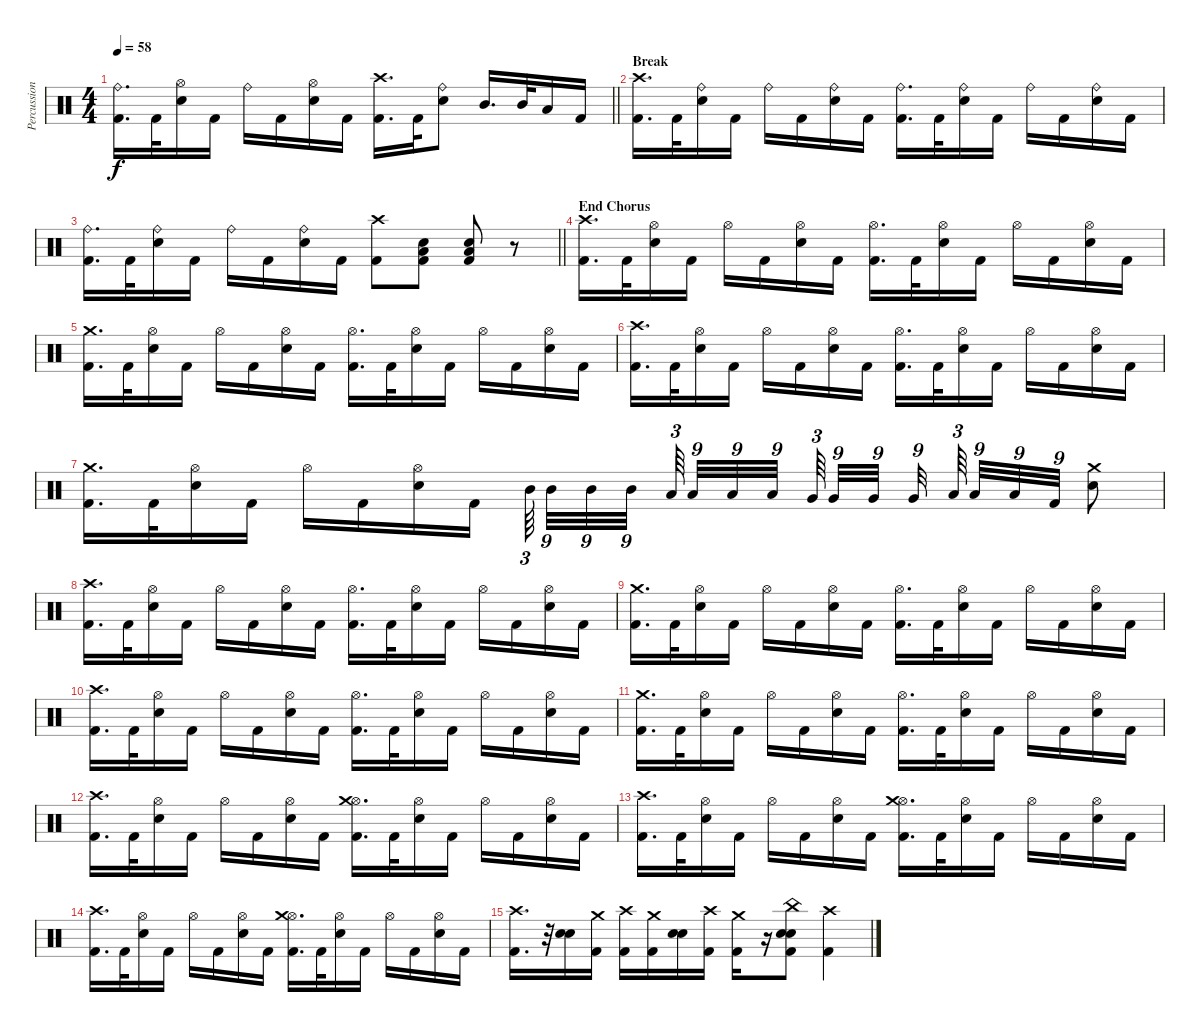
\track ("Percussion 1" "Percussion") {instrument percussion}
\staff {score}
\articulation defaults
\ts (4 4)
\tempo 58
\clef neutral
\barLineRight lightlight
\ks c
("Ride (bell)" "Kick (hit) 2").16{d dy f} "Kick (hit) 2".32 ("Hi-Hat (open)" "Snare (hit) 2").16 "Kick (hit) 2".16 "Ride (bell)".16 "Kick (hit) 2".16 ("Hi-Hat (open)" "Snare (hit) 2").16 "Kick (hit) 2".16 ("Crash high (hit)" "Kick (hit) 2").16{d} "Kick (hit) 2".32 ("Ride (bell)" "Snare (hit) 2").8 "Mid Tom (hit)".16{d} "Mid Tom (hit)".32 "Low Tom (hit)".16 "Kick (hit) 2".16 |
\section ("" "Break")
("Crash high (hit)" "Kick (hit) 2").16{d} "Kick (hit) 2".32 ("Ride (bell)" "Snare (hit) 2").16 "Kick (hit) 2".16 "Ride (bell)".16 "Kick (hit) 2".16 ("Ride (bell)" "Snare (hit) 2").16 "Kick (hit) 2".16 ("Ride (bell)" "Kick (hit) 2").16{d} "Kick (hit) 2".32 ("Ride (bell)" "Snare (hit) 2").16 "Kick (hit) 2".16 "Ride (bell)".16 "Kick (hit) 2".16 ("Ride (bell)" "Snare (hit) 2").16 "Kick (hit) 2".16 |
\barLineRight lightlight
("Ride (bell)" "Kick (hit) 2").16{d} "Kick (hit) 2".32 ("Ride (bell)" "Snare (hit) 2").16 "Kick (hit) 2".16 "Ride (bell)".16 "Kick (hit) 2".16 ("Ride (bell)" "Snare (hit) 2").16 "Kick (hit) 2".16 ("Crash high (hit)" "Kick (hit) 2").8 ("Snare (hit) 2" "Low Floor Tom (hit)" "Kick (hit) 2").8 ("Snare (hit) 2" "Low Floor Tom (hit)" "Kick (hit) 2").8 r.8 |
\section ("" "End Chorus")
("Crash high (hit)" "Kick (hit) 2").16{d} "Kick (hit) 2".32 ("Hi-Hat (open)" "Snare (hit) 2").16 "Kick (hit) 2".16 "Hi-Hat (open)".16 "Kick (hit) 2".16 ("Hi-Hat (open)" "Snare (hit) 2").16 "Kick (hit) 2".16 ("Hi-Hat (open)" "Kick (hit) 2").16{d} "Kick (hit) 2".32 ("Hi-Hat (open)" "Snare (hit) 2").16 "Kick (hit) 2".16 "Hi-Hat (open)".16 "Kick (hit) 2".16 ("Hi-Hat (open)" "Snare (hit) 2").16 "Kick (hit) 2".16 |
("Crash medium (hit)" "Kick (hit) 2").16{d} "Kick (hit) 2".32 ("Hi-Hat (open)" "Snare (hit) 2").16 "Kick (hit) 2".16 "Hi-Hat (open)".16 "Kick (hit) 2".16 ("Hi-Hat (open)" "Snare (hit) 2").16 "Kick (hit) 2".16 ("Hi-Hat (open)" "Kick (hit) 2").16{d} "Kick (hit) 2".32 ("Hi-Hat (open)" "Snare (hit) 2").16 "Kick (hit) 2".16 "Hi-Hat (open)".16 "Kick (hit) 2".16 ("Hi-Hat (open)" "Snare (hit) 2").16 "Kick (hit) 2".16 |
("Crash high (hit)" "Kick (hit) 2").16{d} "Kick (hit) 2".32 ("Hi-Hat (open)" "Snare (hit) 2").16 "Kick (hit) 2".16 "Hi-Hat (open)".16 "Kick (hit) 2".16 ("Hi-Hat (open)" "Snare (hit) 2").16 "Kick (hit) 2".16 ("Hi-Hat (open)" "Kick (hit) 2").16{d} "Kick (hit) 2".32 ("Hi-Hat (open)" "Snare (hit) 2").16 "Kick (hit) 2".16 "Hi-Hat (open)".16 "Kick (hit) 2".16 ("Hi-Hat (open)" "Snare (hit) 2").16 "Kick (hit) 2".16 |
("Crash medium (hit)" "Kick (hit) 2").16{d} "Kick (hit) 2".32 ("Hi-Hat (open)" "Snare (hit) 2").16 "Kick (hit) 2".16 "Hi-Hat (open)".16 "Kick (hit) 2".16 ("Hi-Hat (open)" "Snare (hit) 2").16 "Kick (hit) 2".16 "Mid Tom (hit)".64{tu (3 2)} "Mid Tom (hit)".32{tu (9 8)} "Mid Tom (hit)".32{tu (9 8)} "Mid Tom (hit)".32{tu (9 8)} "Low Tom (hit)".64{tu (3 2)} "Low Tom (hit)".32{tu (9 8)} "Low Tom (hit)".32{tu (9 8)} "Low Tom (hit)".32{tu (9 8)} "Very Low Tom (hit)".64{tu (3 2)} "Very Low Tom (hit)".32{tu (9 8)} "Very Low Tom (hit)".32{tu (9 8)} "Very Low Tom (hit)".32{tu (9 8)} "Low Floor Tom (hit)".64{tu (3 2)} "Low Floor Tom (hit)".32{tu (9 8)} "Low Floor Tom (hit)".32{tu (9 8)} "Kick (hit) 2".32{tu (9 8)} ("Snare (hit) 2" "Crash medium (hit)").8 |
("Crash high (hit)" "Kick (hit) 2").16{d} "Kick (hit) 2".32 ("Hi-Hat (open)" "Snare (hit) 2").16 "Kick (hit) 2".16 "Hi-Hat (open)".16 "Kick (hit) 2".16 ("Hi-Hat (open)" "Snare (hit) 2").16 "Kick (hit) 2".16 ("Hi-Hat (open)" "Kick (hit) 2").16{d} "Kick (hit) 2".32 ("Hi-Hat (open)" "Snare (hit) 2").16 "Kick (hit) 2".16 "Hi-Hat (open)".16 "Kick (hit) 2".16 ("Hi-Hat (open)" "Snare (hit) 2").16 "Kick (hit) 2".16 |
("Crash medium (hit)" "Kick (hit) 2").16{d} "Kick (hit) 2".32 ("Hi-Hat (open)" "Snare (hit) 2").16 "Kick (hit) 2".16 "Hi-Hat (open)".16 "Kick (hit) 2".16 ("Hi-Hat (open)" "Snare (hit) 2").16 "Kick (hit) 2".16 ("Hi-Hat (open)" "Kick (hit) 2").16{d} "Kick (hit) 2".32 ("Hi-Hat (open)" "Snare (hit) 2").16 "Kick (hit) 2".16 "Hi-Hat (open)".16 "Kick (hit) 2".16 ("Hi-Hat (open)" "Snare (hit) 2").16 "Kick (hit) 2".16 |
("Crash high (hit)" "Kick (hit) 2").16{d} "Kick (hit) 2".32 ("Hi-Hat (open)" "Snare (hit) 2").16 "Kick (hit) 2".16 "Hi-Hat (open)".16 "Kick (hit) 2".16 ("Hi-Hat (open)" "Snare (hit) 2").16 "Kick (hit) 2".16 ("Hi-Hat (open)" "Kick (hit) 2").16{d} "Kick (hit) 2".32 ("Hi-Hat (open)" "Snare (hit) 2").16 "Kick (hit) 2".16 "Hi-Hat (open)".16 "Kick (hit) 2".16 ("Hi-Hat (open)" "Snare (hit) 2").16 "Kick (hit) 2".16 |
("Crash medium (hit)" "Kick (hit) 2").16{d} "Kick (hit) 2".32 ("Hi-Hat (open)" "Snare (hit) 2").16 "Kick (hit) 2".16 "Hi-Hat (open)".16 "Kick (hit) 2".16 ("Hi-Hat (open)" "Snare (hit) 2").16 "Kick (hit) 2".16 ("Hi-Hat (open)" "Kick (hit) 2").16{d} "Kick (hit) 2".32 ("Hi-Hat (open)" "Snare (hit) 2").16 "Kick (hit) 2".16 "Hi-Hat (open)".16 "Kick (hit) 2".16 ("Hi-Hat (open)" "Snare (hit) 2").16 "Kick (hit) 2".16 |
("Crash high (hit)" "Kick (hit) 2").16{d} "Kick (hit) 2".32 ("Hi-Hat (open)" "Snare (hit) 2").16 "Kick (hit) 2".16 "Hi-Hat (open)".16 "Kick (hit) 2".16 ("Hi-Hat (open)" "Snare (hit) 2").16 "Kick (hit) 2".16 ("Hi-Hat (open)" "Crash medium (hit)" "Kick (hit) 2").16{d} "Kick (hit) 2".32 ("Hi-Hat (open)" "Snare (hit) 2").16 "Kick (hit) 2".16 "Hi-Hat (open)".16 "Kick (hit) 2".16 ("Hi-Hat (open)" "Snare (hit) 2").16 "Kick (hit) 2".16 |
("Crash high (hit)" "Kick (hit) 2").16{d} "Kick (hit) 2".32 ("Hi-Hat (open)" "Snare (hit) 2").16 "Kick (hit) 2".16 "Hi-Hat (open)".16 "Kick (hit) 2".16 ("Hi-Hat (open)" "Snare (hit) 2").16 "Kick (hit) 2".16 ("Hi-Hat (open)" "Crash medium (hit)" "Kick (hit) 2").16{d} "Kick (hit) 2".32 ("Hi-Hat (open)" "Snare (hit) 2").16 "Kick (hit) 2".16 "Hi-Hat (open)".16 "Kick (hit) 2".16 ("Hi-Hat (open)" "Snare (hit) 2").16 "Kick (hit) 2".16 |
("Crash high (hit)" "Kick (hit) 2").16{d} "Kick (hit) 2".32 ("Hi-Hat (open)" "Snare (hit) 2").16 "Kick (hit) 2".16 "Hi-Hat (open)".16 "Kick (hit) 2".16 ("Hi-Hat (open)" "Snare (hit) 2").16 "Kick (hit) 2".16 ("Hi-Hat (open)" "Crash medium (hit)" "Kick (hit) 2").16{d} "Kick (hit) 2".32 ("Hi-Hat (open)" "Snare (hit) 2").16 "Kick (hit) 2".16 "Hi-Hat (open)".16 "Kick (hit) 2".16 ("Hi-Hat (open)" "Snare (hit) 2").16 "Kick (hit) 2".16 |
("Crash high (hit)" "Kick (hit) 2").16{d} r.32 ("Snare (hit) 2" "Electric Snare (hit)").16 ("Crash medium (hit)" "Kick (hit) 2").16 ("Crash high (hit)" "Kick (hit) 2").16 ("Crash medium (hit)" "Kick (hit) 2").16 ("Snare (hit) 2" "Electric Snare (hit)").16 ("Crash high (hit)" "Kick (hit) 2").16 ("Crash medium (hit)" "Kick (hit) 2").16 r.16 ("Snare (hit) 2" "Electric Snare (hit)" "China (hit)" "Kick (hit) 2").8 ("Crash high (hit)" "Kick (hit) 2").4
